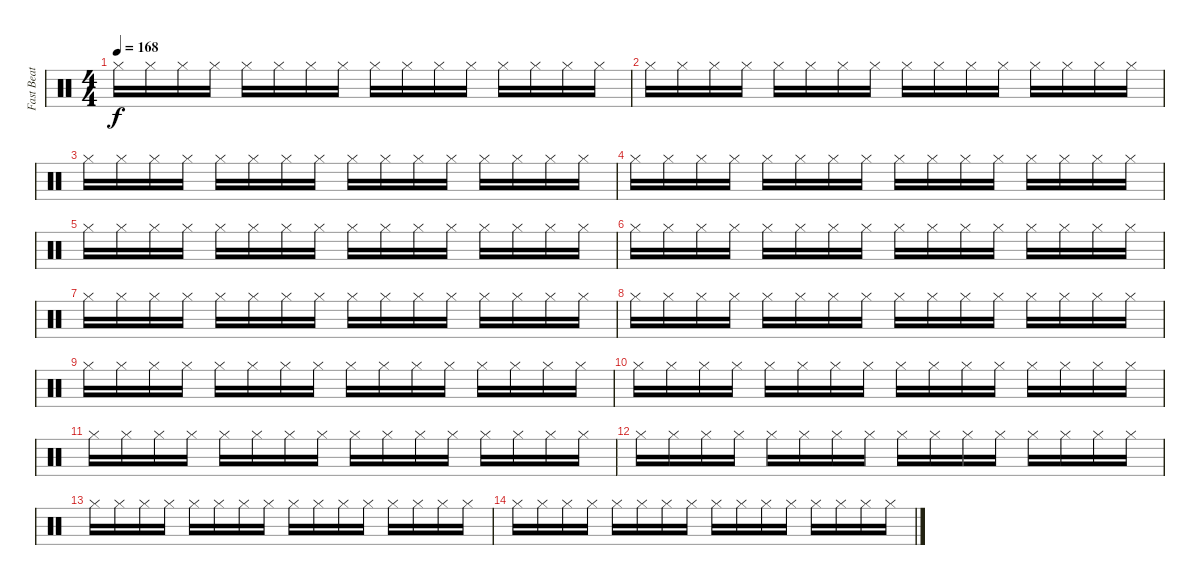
\track ("Fast Beat" "Fast Beat") {instrument percussion}
\staff {score}
\articulation defaults
\ts (4 4)
\tempo 168
\clef neutral
\ks c "Hi-Hat (closed)".16{dy f} "Hi-Hat (closed)".16 "Hi-Hat (closed)".16 "Hi-Hat (closed)".16 "Hi-Hat (closed)".16 "Hi-Hat (closed)".16 "Hi-Hat (closed)".16 "Hi-Hat (closed)".16 "Hi-Hat (closed)".16 "Hi-Hat (closed)".16 "Hi-Hat (closed)".16 "Hi-Hat (closed)".16 "Hi-Hat (closed)".16 "Hi-Hat (closed)".16 "Hi-Hat (closed)".16 "Hi-Hat (closed)".16
|
"Hi-Hat (closed)".16 "Hi-Hat (closed)".16 "Hi-Hat (closed)".16 "Hi-Hat (closed)".16 "Hi-Hat (closed)".16 "Hi-Hat (closed)".16 "Hi-Hat (closed)".16 "Hi-Hat (closed)".16 "Hi-Hat (closed)".16 "Hi-Hat (closed)".16 "Hi-Hat (closed)".16 "Hi-Hat (closed)".16 "Hi-Hat (closed)".16 "Hi-Hat (closed)".16 "Hi-Hat (closed)".16 "Hi-Hat (closed)".16 |
"Hi-Hat (closed)".16 "Hi-Hat (closed)".16 "Hi-Hat (closed)".16 "Hi-Hat (closed)".16 "Hi-Hat (closed)".16 "Hi-Hat (closed)".16 "Hi-Hat (closed)".16 "Hi-Hat (closed)".16 "Hi-Hat (closed)".16 "Hi-Hat (closed)".16 "Hi-Hat (closed)".16 "Hi-Hat (closed)".16 "Hi-Hat (closed)".16 "Hi-Hat (closed)".16 "Hi-Hat (closed)".16 "Hi-Hat (closed)".16 |
"Hi-Hat (closed)".16 "Hi-Hat (closed)".16 "Hi-Hat (closed)".16 "Hi-Hat (closed)".16 "Hi-Hat (closed)".16 "Hi-Hat (closed)".16 "Hi-Hat (closed)".16 "Hi-Hat (closed)".16 "Hi-Hat (closed)".16 "Hi-Hat (closed)".16 "Hi-Hat (closed)".16 "Hi-Hat (closed)".16 "Hi-Hat (closed)".16 "Hi-Hat (closed)".16 "Hi-Hat (closed)".16 "Hi-Hat (closed)".16 |
"Hi-Hat (closed)".16 "Hi-Hat (closed)".16 "Hi-Hat (closed)".16 "Hi-Hat (closed)".16 "Hi-Hat (closed)".16 "Hi-Hat (closed)".16 "Hi-Hat (closed)".16 "Hi-Hat (closed)".16 "Hi-Hat (closed)".16 "Hi-Hat (closed)".16 "Hi-Hat (closed)".16 "Hi-Hat (closed)".16 "Hi-Hat (closed)".16 "Hi-Hat (closed)".16 "Hi-Hat (closed)".16 "Hi-Hat (closed)".16 |
"Hi-Hat (closed)".16 "Hi-Hat (closed)".16 "Hi-Hat (closed)".16 "Hi-Hat (closed)".16 "Hi-Hat (closed)".16 "Hi-Hat (closed)".16 "Hi-Hat (closed)".16 "Hi-Hat (closed)".16 "Hi-Hat (closed)".16 "Hi-Hat (closed)".16 "Hi-Hat (closed)".16 "Hi-Hat (closed)".16 "Hi-Hat (closed)".16 "Hi-Hat (closed)".16 "Hi-Hat (closed)".16 "Hi-Hat (closed)".16 |
"Hi-Hat (closed)".16 "Hi-Hat (closed)".16 "Hi-Hat (closed)".16 "Hi-Hat (closed)".16 "Hi-Hat (closed)".16 "Hi-Hat (closed)".16 "Hi-Hat (closed)".16 "Hi-Hat (closed)".16 "Hi-Hat (closed)".16 "Hi-Hat (closed)".16 "Hi-Hat (closed)".16 "Hi-Hat (closed)".16 "Hi-Hat (closed)".16 "Hi-Hat (closed)".16 "Hi-Hat (closed)".16 "Hi-Hat (closed)".16 |
"Hi-Hat (closed)".16 "Hi-Hat (closed)".16 "Hi-Hat (closed)".16 "Hi-Hat (closed)".16 "Hi-Hat (closed)".16 "Hi-Hat (closed)".16 "Hi-Hat (closed)".16 "Hi-Hat (closed)".16 "Hi-Hat (closed)".16 "Hi-Hat (closed)".16 "Hi-Hat (closed)".16 "Hi-Hat (closed)".16 "Hi-Hat (closed)".16 "Hi-Hat (closed)".16 "Hi-Hat (closed)".16 "Hi-Hat (closed)".16 |
"Hi-Hat (closed)".16 "Hi-Hat (closed)".16 "Hi-Hat (closed)".16 "Hi-Hat (closed)".16 "Hi-Hat (closed)".16 "Hi-Hat (closed)".16 "Hi-Hat (closed)".16 "Hi-Hat (closed)".16 "Hi-Hat (closed)".16 "Hi-Hat (closed)".16 "Hi-Hat (closed)".16 "Hi-Hat (closed)".16 "Hi-Hat (closed)".16 "Hi-Hat (closed)".16 "Hi-Hat (closed)".16 "Hi-Hat (closed)".16 |
"Hi-Hat (closed)".16 "Hi-Hat (closed)".16 "Hi-Hat (closed)".16 "Hi-Hat (closed)".16 "Hi-Hat (closed)".16 "Hi-Hat (closed)".16 "Hi-Hat (closed)".16 "Hi-Hat (closed)".16 "Hi-Hat (closed)".16 "Hi-Hat (closed)".16 "Hi-Hat (closed)".16 "Hi-Hat (closed)".16 "Hi-Hat (closed)".16 "Hi-Hat (closed)".16 "Hi-Hat (closed)".16 "Hi-Hat (closed)".16 |
"Hi-Hat (closed)".16 "Hi-Hat (closed)".16 "Hi-Hat (closed)".16 "Hi-Hat (closed)".16 "Hi-Hat (closed)".16 "Hi-Hat (closed)".16 "Hi-Hat (closed)".16 "Hi-Hat (closed)".16 "Hi-Hat (closed)".16 "Hi-Hat (closed)".16 "Hi-Hat (closed)".16 "Hi-Hat (closed)".16 "Hi-Hat (closed)".16 "Hi-Hat (closed)".16 "Hi-Hat (closed)".16 "Hi-Hat (closed)".16 |
"Hi-Hat (closed)".16 "Hi-Hat (closed)".16 "Hi-Hat (closed)".16 "Hi-Hat (closed)".16 "Hi-Hat (closed)".16 "Hi-Hat (closed)".16 "Hi-Hat (closed)".16 "Hi-Hat (closed)".16 "Hi-Hat (closed)".16 "Hi-Hat (closed)".16 "Hi-Hat (closed)".16 "Hi-Hat (closed)".16 "Hi-Hat (closed)".16 "Hi-Hat (closed)".16 "Hi-Hat (closed)".16 "Hi-Hat (closed)".16 |
"Hi-Hat (closed)".16 "Hi-Hat (closed)".16 "Hi-Hat (closed)".16 "Hi-Hat (closed)".16 "Hi-Hat (closed)".16 "Hi-Hat (closed)".16 "Hi-Hat (closed)".16 "Hi-Hat (closed)".16 "Hi-Hat (closed)".16 "Hi-Hat (closed)".16 "Hi-Hat (closed)".16 "Hi-Hat (closed)".16 "Hi-Hat (closed)".16 "Hi-Hat (closed)".16 "Hi-Hat (closed)".16 "Hi-Hat (closed)".16 |
"Hi-Hat (closed)".16 "Hi-Hat (closed)".16 "Hi-Hat (closed)".16 "Hi-Hat (closed)".16 "Hi-Hat (closed)".16 "Hi-Hat (closed)".16 "Hi-Hat (closed)".16 "Hi-Hat (closed)".16 "Hi-Hat (closed)".16 "Hi-Hat (closed)".16 "Hi-Hat (closed)".16 "Hi-Hat (closed)".16 "Hi-Hat (closed)".16 "Hi-Hat (closed)".16 "Hi-Hat (closed)".16 "Hi-Hat (closed)".16
